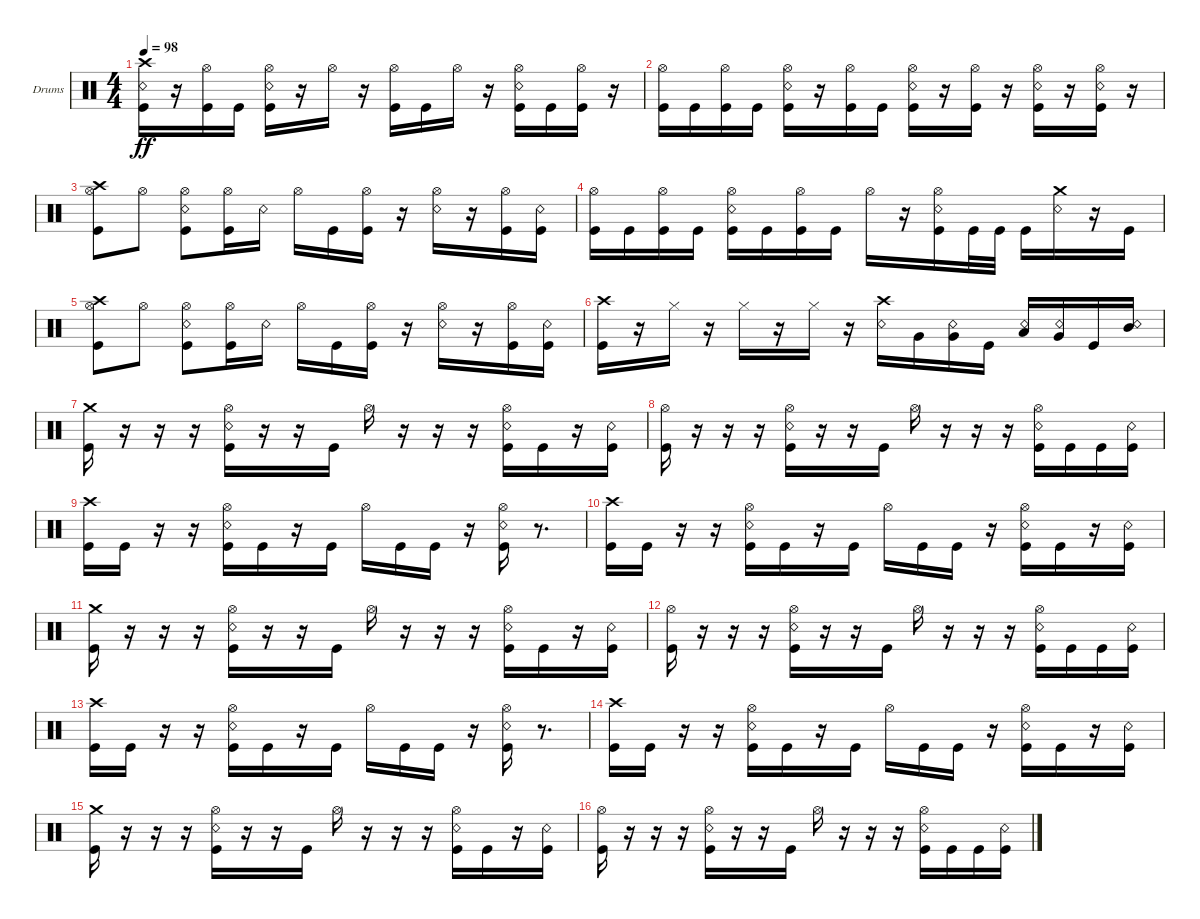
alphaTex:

\bracketExtendMode groupsimilarinstruments
\firstSystemTrackNameOrientation horizontal
\otherSystemsTrackNameOrientation horizontal
\track ("Drumkit" "Drums") {instrument percussion}
\staff {score}
\articulation defaults
\ts (4 4)
\tempo 98
\clef neutral
\ks c
("Crash high (hit)" "Kick (hit)" "Snare (rim shot)").16{dy ff} r.16 ("Kick (hit)" "Hi-Hat (open)").16 "Kick (hit)".16 ("Kick (hit)" "Hi-Hat (open)" "Snare (rim shot)").16 r.16 "Hi-Hat (open)".16 r.16 ("Kick (hit)" "Hi-Hat (open)").16 "Kick (hit)".16 "Hi-Hat (open)".16 r.16 ("Kick (hit)" "Hi-Hat (open)" "Snare (rim shot)").16 "Kick (hit)".16 ("Kick (hit)" "Hi-Hat (open)").16 r.16 |
("Kick (hit)" "Hi-Hat (open)").16 "Kick (hit)".16 ("Kick (hit)" "Hi-Hat (open)").16 "Kick (hit)".16 ("Kick (hit)" "Hi-Hat (open)" "Snare (rim shot)").16 r.16 ("Kick (hit)" "Hi-Hat (open)").16 "Kick (hit)".16 ("Kick (hit)" "Hi-Hat (open)" "Snare (rim shot)").16 r.16 ("Kick (hit)" "Hi-Hat (open)").16 r.16 ("Kick (hit)" "Hi-Hat (open)" "Snare (rim shot)").16 r.16 ("Kick (hit)" "Hi-Hat (open)" "Snare (rim shot)").16 r.16 |
("Kick (hit)" "Hi-Hat (open)" "Crash high (hit)").8 "Hi-Hat (open)".8 ("Kick (hit)" "Hi-Hat (open)" "Snare (rim shot)").8 ("Kick (hit)" "Hi-Hat (open)").16 "Snare (rim shot)".16 "Hi-Hat (open)".16 "Kick (hit)".16 ("Kick (hit)" "Hi-Hat (open)").16 r.16 ("Snare (rim shot)" "Hi-Hat (open)").16 r.16 ("Hi-Hat (open)" "Kick (hit)").16 ("Snare (rim shot)" "Kick (hit)").16 |
("Kick (hit)" "Hi-Hat (open)").16 "Kick (hit)".16 ("Kick (hit)" "Hi-Hat (open)").16 "Kick (hit)".16 ("Kick (hit)" "Hi-Hat (open)" "Snare (rim shot)").16 "Kick (hit)".16 ("Kick (hit)" "Hi-Hat (open)").16 "Kick (hit)".16 "Hi-Hat (open)".16 r.16 ("Hi-Hat (open)" "Snare (rim shot)" "Kick (hit)").16 "Kick (hit)".32 "Kick (hit)".32 "Kick (hit)".16 ("Snare (rim shot)" "Crash medium (hit)").16 r.16 "Kick (hit)".16 |
("Kick (hit)" "Hi-Hat (open)" "Crash high (hit)").8 "Hi-Hat (open)".8 ("Kick (hit)" "Hi-Hat (open)" "Snare (rim shot)").8 ("Kick (hit)" "Hi-Hat (open)").16 "Snare (rim shot)".16 "Hi-Hat (open)".16 "Kick (hit)".16 ("Kick (hit)" "Hi-Hat (open)").16 r.16 ("Snare (rim shot)" "Hi-Hat (open)").16 r.16 ("Hi-Hat (open)" "Kick (hit)").16 ("Snare (rim shot)" "Kick (hit)").16 |
("Kick (hit)" "Crash high (hit)").16 r.16 "Hi-Hat (closed)".16 r.16 "Hi-Hat (closed)".16 r.16 "Hi-Hat (closed)".16 r.16 ("Crash high (hit)" "Snare (rim shot)").16 "Very Low Tom (hit)".16 ("Snare (rim shot)" "Very Low Tom (hit)").16 "Kick (hit)".16 ("Snare (rim shot)" "Low Tom (hit)").16 ("Snare (rim shot)" "Very Low Tom (hit)").16 "Kick (hit)".16 ("Snare (rim shot)" "Mid Tom (hit)").16 |
("Crash medium (hit)" "Kick (hit)").16 r.16 r.16 r.16 ("Kick (hit)" "Hi-Hat (open)" "Snare (rim shot)").16 r.16 r.16 "Kick (hit)".16 "Hi-Hat (open)".16 r.16 r.16 r.16 ("Kick (hit)" "Hi-Hat (open)" "Snare (rim shot)").16 "Kick (hit)".16 r.16 ("Kick (hit)" "Snare (rim shot)").16 |
("Kick (hit)" "Hi-Hat (open)").16 r.16 r.16 r.16 ("Kick (hit)" "Hi-Hat (open)" "Snare (rim shot)").16 r.16 r.16 "Kick (hit)".16 "Hi-Hat (open)".16 r.16 r.16 r.16 ("Kick (hit)" "Hi-Hat (open)" "Snare (rim shot)").16 "Kick (hit)".16 "Kick (hit)".16 ("Kick (hit)" "Snare (rim shot)").16 |
("Kick (hit)" "Crash high (hit)").16 "Kick (hit)".16 r.16 r.16 ("Kick (hit)" "Hi-Hat (open)" "Snare (rim shot)").16 "Kick (hit)".16 r.16 "Kick (hit)".16 "Hi-Hat (open)".16 "Kick (hit)".16 "Kick (hit)".16 r.16 ("Kick (hit)" "Hi-Hat (open)" "Snare (rim shot)").16 r.8{d} |
("Kick (hit)" "Crash high (hit)").16 "Kick (hit)".16 r.16 r.16 ("Kick (hit)" "Hi-Hat (open)" "Snare (rim shot)").16 "Kick (hit)".16 r.16 "Kick (hit)".16 "Hi-Hat (open)".16 "Kick (hit)".16 "Kick (hit)".16 r.16 ("Kick (hit)" "Hi-Hat (open)" "Snare (rim shot)").16 "Kick (hit)".16 r.16 ("Kick (hit)" "Snare (rim shot)").16 |
("Crash medium (hit)" "Kick (hit)").16 r.16 r.16 r.16 ("Kick (hit)" "Hi-Hat (open)" "Snare (rim shot)").16 r.16 r.16 "Kick (hit)".16 "Hi-Hat (open)".16 r.16 r.16 r.16 ("Kick (hit)" "Hi-Hat (open)" "Snare (rim shot)").16 "Kick (hit)".16 r.16 ("Kick (hit)" "Snare (rim shot)").16 |
("Kick (hit)" "Hi-Hat (open)").16 r.16 r.16 r.16 ("Kick (hit)" "Hi-Hat (open)" "Snare (rim shot)").16 r.16 r.16 "Kick (hit)".16 "Hi-Hat (open)".16 r.16 r.16 r.16 ("Kick (hit)" "Hi-Hat (open)" "Snare (rim shot)").16 "Kick (hit)".16 "Kick (hit)".16 ("Kick (hit)" "Snare (rim shot)").16 |
("Kick (hit)" "Crash high (hit)").16 "Kick (hit)".16 r.16 r.16 ("Kick (hit)" "Hi-Hat (open)" "Snare (rim shot)").16 "Kick (hit)".16 r.16 "Kick (hit)".16 "Hi-Hat (open)".16 "Kick (hit)".16 "Kick (hit)".16 r.16 ("Kick (hit)" "Hi-Hat (open)" "Snare (rim shot)").16 r.8{d} |
("Kick (hit)" "Crash high (hit)").16 "Kick (hit)".16 r.16 r.16 ("Kick (hit)" "Hi-Hat (open)" "Snare (rim shot)").16 "Kick (hit)".16 r.16 "Kick (hit)".16 "Hi-Hat (open)".16 "Kick (hit)".16 "Kick (hit)".16 r.16 ("Kick (hit)" "Hi-Hat (open)" "Snare (rim shot)").16 "Kick (hit)".16 r.16 ("Kick (hit)" "Snare (rim shot)").16 |
("Crash medium (hit)" "Kick (hit)").16 r.16 r.16 r.16 ("Kick (hit)" "Hi-Hat (open)" "Snare (rim shot)").16 r.16 r.16 "Kick (hit)".16 "Hi-Hat (open)".16 r.16 r.16 r.16 ("Kick (hit)" "Hi-Hat (open)" "Snare (rim shot)").16 "Kick (hit)".16 r.16 ("Kick (hit)" "Snare (rim shot)").16 |
("Kick (hit)" "Hi-Hat (open)").16 r.16 r.16 r.16 ("Kick (hit)" "Hi-Hat (open)" "Snare (rim shot)").16 r.16 r.16 "Kick (hit)".16 "Hi-Hat (open)".16 r.16 r.16 r.16 ("Kick (hit)" "Hi-Hat (open)" "Snare (rim shot)").16 "Kick (hit)".16 "Kick (hit)".16 ("Kick (hit)" "Snare (rim shot)").16
